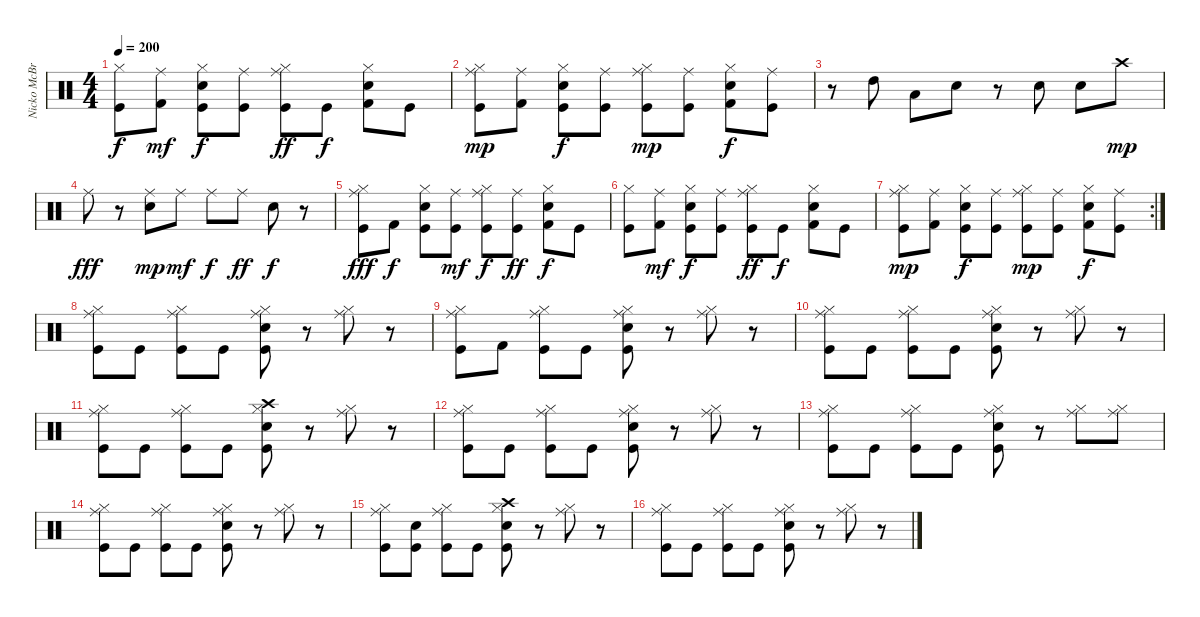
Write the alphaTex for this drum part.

\track ("Nicko McBrain" "Nicko McBr") {instrument percussion}
\staff {score}
\articulation defaults
\ts (4 4)
\tempo 200
\clef neutral
\ks c
("Hi-Hat (closed)" "Kick (hit)").8{dy f} ("Ride (middle)" "Kick (hit) 2").8{dy mf} ("Hi-Hat (closed)" "Electric Snare (hit)" "Kick (hit)").8{dy f} ("Ride (middle)" "Kick (hit)").8 ("Ride (middle)" "Hi-Hat (closed)" "Kick (hit)").8{dy ff} "Kick (hit)".8{dy f} ("Hi-Hat (closed)" "Electric Snare (hit)" "Kick (hit) 2").8 "Kick (hit)".8 |
("Ride (middle)" "Hi-Hat (closed)" "Kick (hit)").8{dy mp} ("Ride (middle)" "Kick (hit) 2").8 ("Hi-Hat (closed)" "Electric Snare (hit)" "Kick (hit)").8{dy f} ("Ride (middle)" "Kick (hit)").8 ("Ride (middle)" "Hi-Hat (closed)" "Kick (hit)").8{dy mp} ("Ride (middle)" "Kick (hit)").8 ("Hi-Hat (closed)" "Electric Snare (hit)" "Kick (hit) 2").8{dy f} ("Ride (middle)" "Kick (hit)").8 |
r.8 "High Tom (hit)".8 "Low Tom (hit)".8 "Electric Snare (hit)".8 r.8 "Electric Snare (hit)".8 "Electric Snare (hit)".8 "Crash high (hit)".8{dy mp} |
"Ride (middle)".8{dy fff} r.8 ("Ride (middle)" "Electric Snare (hit)").8{dy mp} "Ride (middle)".8{dy mf} "Ride (middle)".8{dy f} "Ride (middle)".8{dy ff} "Electric Snare (hit)".8{dy f} r.8 |
("Ride (middle)" "Hi-Hat (closed)" "Kick (hit)").8{dy fff} "Kick (hit) 2".8{dy f} ("Hi-Hat (closed)" "Electric Snare (hit)" "Kick (hit)").8 ("Ride (middle)" "Kick (hit)").8{dy mf} ("Ride (middle)" "Hi-Hat (closed)" "Kick (hit)").8{dy f} ("Ride (middle)" "Kick (hit)").8{dy ff} ("Hi-Hat (closed)" "Electric Snare (hit)" "Kick (hit) 2").8{dy f} "Kick (hit)".8 |
("Hi-Hat (closed)" "Kick (hit)").8 ("Ride (middle)" "Kick (hit) 2").8{dy mf} ("Hi-Hat (closed)" "Electric Snare (hit)" "Kick (hit)").8{dy f} ("Ride (middle)" "Kick (hit)").8 ("Ride (middle)" "Hi-Hat (closed)" "Kick (hit)").8{dy ff} "Kick (hit)".8{dy f} ("Hi-Hat (closed)" "Electric Snare (hit)" "Kick (hit) 2").8 "Kick (hit)".8 |
\rc 2
("Ride (middle)" "Hi-Hat (closed)" "Kick (hit)").8{dy mp} ("Ride (middle)" "Kick (hit) 2").8 ("Hi-Hat (closed)" "Electric Snare (hit)" "Kick (hit)").8{dy f} ("Ride (middle)" "Kick (hit)").8 ("Ride (middle)" "Hi-Hat (closed)" "Kick (hit)").8{dy mp} ("Ride (middle)" "Kick (hit)").8 ("Hi-Hat (closed)" "Electric Snare (hit)" "Kick (hit) 2").8{dy f} ("Ride (middle)" "Kick (hit)").8 |
("Ride (middle)" "Hi-Hat (closed)" "Kick (hit)").8 "Kick (hit)".8 ("Ride (middle)" "Hi-Hat (closed)" "Kick (hit)").8 "Kick (hit)".8 ("Ride (middle)" "Electric Snare (hit)" "Hi-Hat (closed)" "Kick (hit)").8 r.8 ("Ride (middle)" "Hi-Hat (closed)").8 r.8 |
("Ride (middle)" "Hi-Hat (closed)" "Kick (hit)").8 "Kick (hit) 2".8 ("Ride (middle)" "Hi-Hat (closed)" "Kick (hit)").8 "Kick (hit)".8 ("Ride (middle)" "Electric Snare (hit)" "Hi-Hat (closed)" "Kick (hit)").8 r.8 ("Ride (middle)" "Hi-Hat (closed)").8 r.8 |
("Ride (middle)" "Hi-Hat (closed)" "Kick (hit)").8 "Kick (hit)".8 ("Ride (middle)" "Hi-Hat (closed)" "Kick (hit)").8 "Kick (hit)".8 ("Ride (middle)" "Electric Snare (hit)" "Hi-Hat (closed)" "Kick (hit)").8 r.8 ("Ride (middle)" "Hi-Hat (closed)").8 r.8 |
("Ride (middle)" "Hi-Hat (closed)" "Kick (hit)").8 "Kick (hit)".8 ("Ride (middle)" "Hi-Hat (closed)" "Kick (hit)").8 "Kick (hit)".8 ("Crash high (hit)" "Electric Snare (hit)" "Hi-Hat (closed)" "Kick (hit)").8 r.8 ("Ride (middle)" "Hi-Hat (closed)").8 r.8 |
("Ride (middle)" "Hi-Hat (closed)" "Kick (hit)").8 "Kick (hit)".8 ("Ride (middle)" "Hi-Hat (closed)" "Kick (hit)").8 "Kick (hit)".8 ("Ride (middle)" "Electric Snare (hit)" "Hi-Hat (closed)" "Kick (hit)").8 r.8 ("Ride (middle)" "Hi-Hat (closed)").8 r.8 |
("Ride (middle)" "Hi-Hat (closed)" "Kick (hit)").8 "Kick (hit)".8 ("Ride (middle)" "Hi-Hat (closed)" "Kick (hit)").8 "Kick (hit)".8 ("Ride (middle)" "Electric Snare (hit)" "Hi-Hat (closed)" "Kick (hit)").8 r.8 ("Ride (middle)" "Hi-Hat (closed)").8 ("Ride (middle)" "Hi-Hat (closed)").8 |
("Ride (middle)" "Hi-Hat (closed)" "Kick (hit)").8 "Kick (hit)".8 ("Ride (middle)" "Hi-Hat (closed)" "Kick (hit)").8 "Kick (hit)".8 ("Ride (middle)" "Electric Snare (hit)" "Hi-Hat (closed)" "Kick (hit)").8 r.8 ("Ride (middle)" "Hi-Hat (closed)").8 r.8 |
("Ride (middle)" "Hi-Hat (closed)" "Kick (hit)").8 ("Electric Snare (hit)" "Kick (hit)").8 ("Ride (middle)" "Hi-Hat (closed)" "Kick (hit)").8 "Kick (hit)".8 ("Crash high (hit)" "Electric Snare (hit)" "Hi-Hat (closed)" "Kick (hit)").8 r.8 ("Ride (middle)" "Hi-Hat (closed)").8 r.8 |
("Ride (middle)" "Hi-Hat (closed)" "Kick (hit)").8 "Kick (hit)".8 ("Ride (middle)" "Hi-Hat (closed)" "Kick (hit)").8 "Kick (hit)".8 ("Ride (middle)" "Electric Snare (hit)" "Hi-Hat (closed)" "Kick (hit)").8 r.8 ("Ride (middle)" "Hi-Hat (closed)").8 r.8
